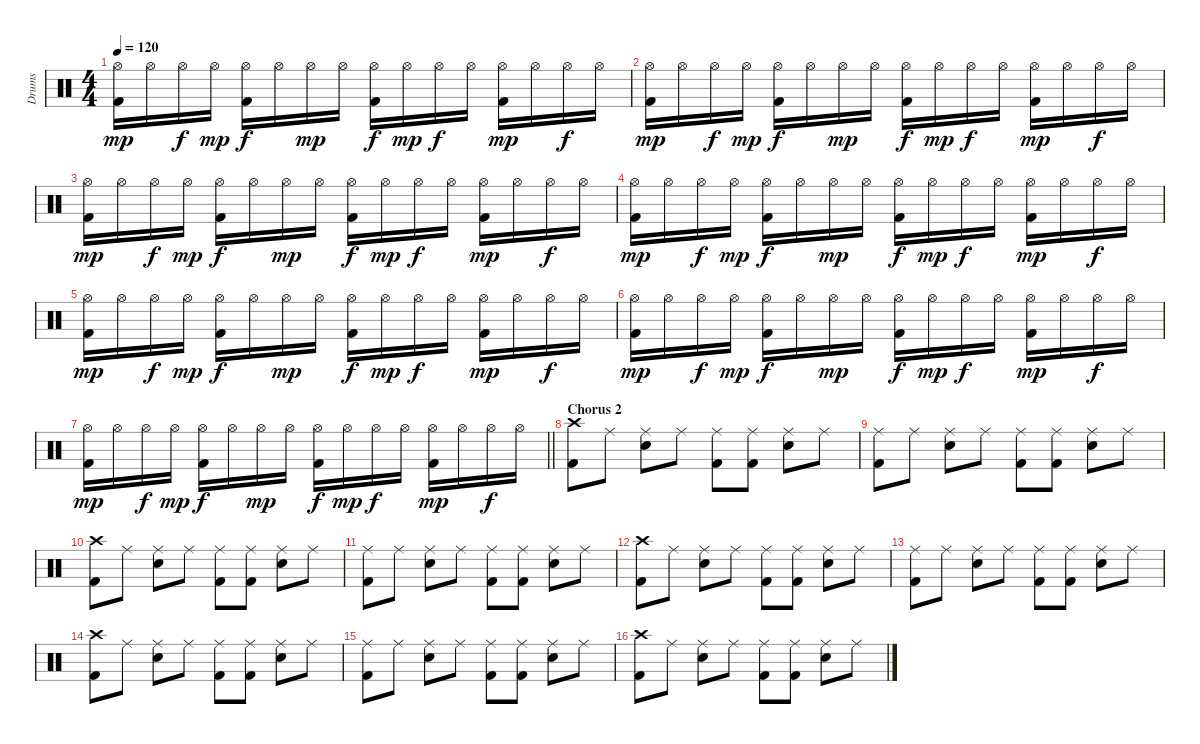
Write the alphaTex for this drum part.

\track ("Drums" "Drums") {instrument percussion}
\staff {score}
\articulation defaults
\ts (4 4)
\tempo 120
\clef neutral
\ks c
("Hi-Hat (open)" "Kick (hit) 2").16{dy mp} "Hi-Hat (open)".16 "Hi-Hat (open)".16{dy f} "Hi-Hat (open)".16{dy mp} ("Hi-Hat (open)" "Kick (hit) 2").16{dy f} "Hi-Hat (open)".16 "Hi-Hat (open)".16{dy mp} "Hi-Hat (open)".16 ("Hi-Hat (open)" "Kick (hit) 2").16{dy f} "Hi-Hat (open)".16{dy mp} "Hi-Hat (open)".16{dy f} "Hi-Hat (open)".16 ("Hi-Hat (open)" "Kick (hit) 2").16{dy mp} "Hi-Hat (open)".16 "Hi-Hat (open)".16{dy f} "Hi-Hat (open)".16 |
("Hi-Hat (open)" "Kick (hit) 2").16{dy mp} "Hi-Hat (open)".16 "Hi-Hat (open)".16{dy f} "Hi-Hat (open)".16{dy mp} ("Hi-Hat (open)" "Kick (hit) 2").16{dy f} "Hi-Hat (open)".16 "Hi-Hat (open)".16{dy mp} "Hi-Hat (open)".16 ("Hi-Hat (open)" "Kick (hit) 2").16{dy f} "Hi-Hat (open)".16{dy mp} "Hi-Hat (open)".16{dy f} "Hi-Hat (open)".16 ("Hi-Hat (open)" "Kick (hit) 2").16{dy mp} "Hi-Hat (open)".16 "Hi-Hat (open)".16{dy f} "Hi-Hat (open)".16 |
("Hi-Hat (open)" "Kick (hit) 2").16{dy mp} "Hi-Hat (open)".16 "Hi-Hat (open)".16{dy f} "Hi-Hat (open)".16{dy mp} ("Hi-Hat (open)" "Kick (hit) 2").16{dy f} "Hi-Hat (open)".16 "Hi-Hat (open)".16{dy mp} "Hi-Hat (open)".16 ("Hi-Hat (open)" "Kick (hit) 2").16{dy f} "Hi-Hat (open)".16{dy mp} "Hi-Hat (open)".16{dy f} "Hi-Hat (open)".16 ("Hi-Hat (open)" "Kick (hit) 2").16{dy mp} "Hi-Hat (open)".16 "Hi-Hat (open)".16{dy f} "Hi-Hat (open)".16 |
("Hi-Hat (open)" "Kick (hit) 2").16{dy mp} "Hi-Hat (open)".16 "Hi-Hat (open)".16{dy f} "Hi-Hat (open)".16{dy mp} ("Hi-Hat (open)" "Kick (hit) 2").16{dy f} "Hi-Hat (open)".16 "Hi-Hat (open)".16{dy mp} "Hi-Hat (open)".16 ("Hi-Hat (open)" "Kick (hit) 2").16{dy f} "Hi-Hat (open)".16{dy mp} "Hi-Hat (open)".16{dy f} "Hi-Hat (open)".16 ("Hi-Hat (open)" "Kick (hit) 2").16{dy mp} "Hi-Hat (open)".16 "Hi-Hat (open)".16{dy f} "Hi-Hat (open)".16 |
("Hi-Hat (open)" "Kick (hit) 2").16{dy mp} "Hi-Hat (open)".16 "Hi-Hat (open)".16{dy f} "Hi-Hat (open)".16{dy mp} ("Hi-Hat (open)" "Kick (hit) 2").16{dy f} "Hi-Hat (open)".16 "Hi-Hat (open)".16{dy mp} "Hi-Hat (open)".16 ("Hi-Hat (open)" "Kick (hit) 2").16{dy f} "Hi-Hat (open)".16{dy mp} "Hi-Hat (open)".16{dy f} "Hi-Hat (open)".16 ("Hi-Hat (open)" "Kick (hit) 2").16{dy mp} "Hi-Hat (open)".16 "Hi-Hat (open)".16{dy f} "Hi-Hat (open)".16 |
("Hi-Hat (open)" "Kick (hit) 2").16{dy mp} "Hi-Hat (open)".16 "Hi-Hat (open)".16{dy f} "Hi-Hat (open)".16{dy mp} ("Hi-Hat (open)" "Kick (hit) 2").16{dy f} "Hi-Hat (open)".16 "Hi-Hat (open)".16{dy mp} "Hi-Hat (open)".16 ("Hi-Hat (open)" "Kick (hit) 2").16{dy f} "Hi-Hat (open)".16{dy mp} "Hi-Hat (open)".16{dy f} "Hi-Hat (open)".16 ("Hi-Hat (open)" "Kick (hit) 2").16{dy mp} "Hi-Hat (open)".16 "Hi-Hat (open)".16{dy f} "Hi-Hat (open)".16 |
\barLineRight lightlight
("Hi-Hat (open)" "Kick (hit) 2").16{dy mp} "Hi-Hat (open)".16 "Hi-Hat (open)".16{dy f} "Hi-Hat (open)".16{dy mp} ("Hi-Hat (open)" "Kick (hit) 2").16{dy f} "Hi-Hat (open)".16 "Hi-Hat (open)".16{dy mp} "Hi-Hat (open)".16 ("Hi-Hat (open)" "Kick (hit) 2").16{dy f} "Hi-Hat (open)".16{dy mp} "Hi-Hat (open)".16{dy f} "Hi-Hat (open)".16 ("Hi-Hat (open)" "Kick (hit) 2").16{dy mp} "Hi-Hat (open)".16 "Hi-Hat (open)".16{dy f} "Hi-Hat (open)".16 |
\section ("" "Chorus 2")
("Crash high (hit)" "Kick (hit) 2").8 "Ride (middle)".8 ("Ride (middle)" "Snare (hit) 2").8 "Ride (middle)".8 ("Ride (middle)" "Kick (hit) 2").8 ("Ride (middle)" "Kick (hit) 2").8 ("Ride (middle)" "Snare (hit) 2").8 "Ride (middle)".8 |
("Ride (middle)" "Kick (hit) 2").8 "Ride (middle)".8 ("Ride (middle)" "Snare (hit) 2").8 "Ride (middle)".8 ("Ride (middle)" "Kick (hit) 2").8 ("Ride (middle)" "Kick (hit) 2").8 ("Ride (middle)" "Snare (hit) 2").8 "Ride (middle)".8 |
("Crash high (hit)" "Kick (hit) 2").8 "Ride (middle)".8 ("Ride (middle)" "Snare (hit) 2").8 "Ride (middle)".8 ("Ride (middle)" "Kick (hit) 2").8 ("Ride (middle)" "Kick (hit) 2").8 ("Ride (middle)" "Snare (hit) 2").8 "Ride (middle)".8 |
("Ride (middle)" "Kick (hit) 2").8 "Ride (middle)".8 ("Ride (middle)" "Snare (hit) 2").8 "Ride (middle)".8 ("Ride (middle)" "Kick (hit) 2").8 ("Ride (middle)" "Kick (hit) 2").8 ("Ride (middle)" "Snare (hit) 2").8 "Ride (middle)".8 |
("Crash high (hit)" "Kick (hit) 2").8 "Ride (middle)".8 ("Ride (middle)" "Snare (hit) 2").8 "Ride (middle)".8 ("Ride (middle)" "Kick (hit) 2").8 ("Ride (middle)" "Kick (hit) 2").8 ("Ride (middle)" "Snare (hit) 2").8 "Ride (middle)".8 |
("Ride (middle)" "Kick (hit) 2").8 "Ride (middle)".8 ("Ride (middle)" "Snare (hit) 2").8 "Ride (middle)".8 ("Ride (middle)" "Kick (hit) 2").8 ("Ride (middle)" "Kick (hit) 2").8 ("Ride (middle)" "Snare (hit) 2").8 "Ride (middle)".8 |
("Crash high (hit)" "Kick (hit) 2").8 "Ride (middle)".8 ("Ride (middle)" "Snare (hit) 2").8 "Ride (middle)".8 ("Ride (middle)" "Kick (hit) 2").8 ("Ride (middle)" "Kick (hit) 2").8 ("Ride (middle)" "Snare (hit) 2").8 "Ride (middle)".8 |
("Ride (middle)" "Kick (hit) 2").8 "Ride (middle)".8 ("Ride (middle)" "Snare (hit) 2").8 "Ride (middle)".8 ("Ride (middle)" "Kick (hit) 2").8 ("Ride (middle)" "Kick (hit) 2").8 ("Ride (middle)" "Snare (hit) 2").8 "Ride (middle)".8 |
("Crash high (hit)" "Kick (hit) 2").8 "Ride (middle)".8 ("Ride (middle)" "Snare (hit) 2").8 "Ride (middle)".8 ("Ride (middle)" "Kick (hit) 2").8 ("Ride (middle)" "Kick (hit) 2").8 ("Ride (middle)" "Snare (hit) 2").8 "Ride (middle)".8
